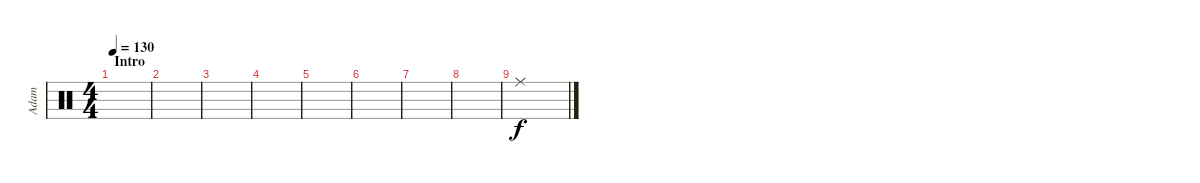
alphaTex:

\track ("Adam" "Adam") {instrument percussion}
\staff {score}
\articulation defaults
\ts (4 4)
\section ("" "Intro")
\tempo 130
\clef neutral
\ks c
|
|
|
|
|
|
|
|
"Ride (middle)".1
